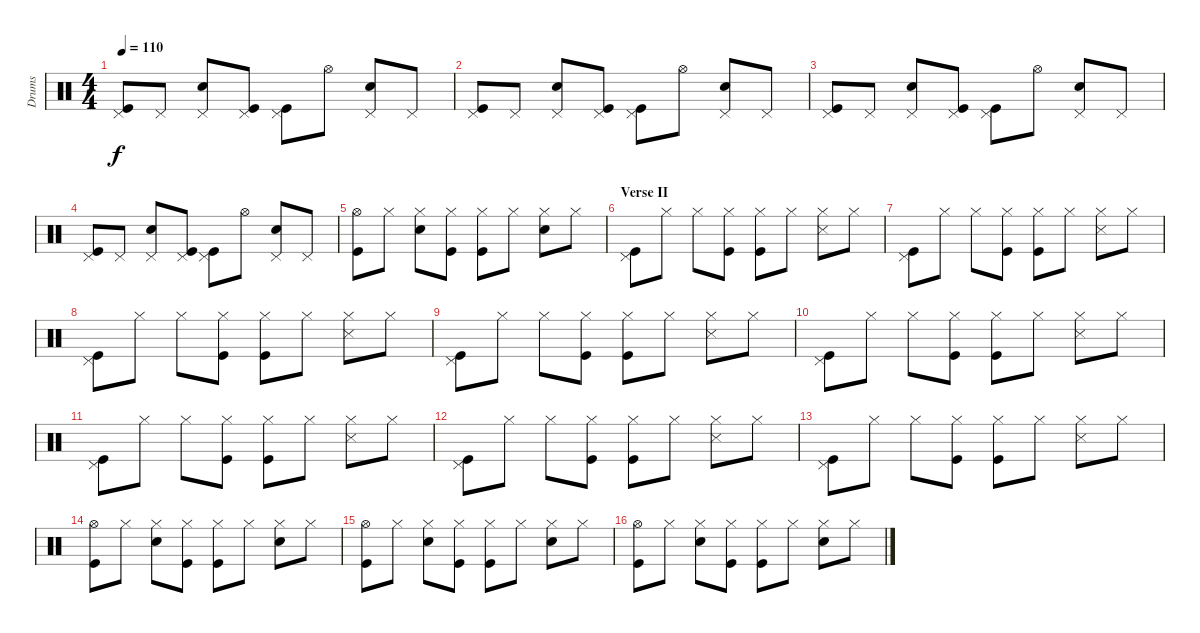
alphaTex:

\track ("Drums" "Drums") {instrument percussion}
\staff {score}
\articulation defaults
\ts (4 4)
\tempo 110
\clef neutral
\ks c
("Pedal Hi-Hat (hit)" "Kick (hit)").8{dy f} "Pedal Hi-Hat (hit)".8 ("Pedal Hi-Hat (hit)" "Snare (hit) 2").8 ("Pedal Hi-Hat (hit)" "Kick (hit)").8 ("Pedal Hi-Hat (hit)" "Kick (hit)").8 "Hi-Hat (open)".8 ("Pedal Hi-Hat (hit)" "Snare (hit) 2").8 "Pedal Hi-Hat (hit)".8 |
("Pedal Hi-Hat (hit)" "Kick (hit)").8 "Pedal Hi-Hat (hit)".8 ("Pedal Hi-Hat (hit)" "Snare (hit) 2").8 ("Pedal Hi-Hat (hit)" "Kick (hit)").8 ("Pedal Hi-Hat (hit)" "Kick (hit)").8 "Hi-Hat (open)".8 ("Pedal Hi-Hat (hit)" "Snare (hit) 2").8 "Pedal Hi-Hat (hit)".8 |
("Pedal Hi-Hat (hit)" "Kick (hit)").8 "Pedal Hi-Hat (hit)".8 ("Pedal Hi-Hat (hit)" "Snare (hit) 2").8 ("Pedal Hi-Hat (hit)" "Kick (hit)").8 ("Pedal Hi-Hat (hit)" "Kick (hit)").8 "Hi-Hat (open)".8 ("Pedal Hi-Hat (hit)" "Snare (hit) 2").8 "Pedal Hi-Hat (hit)".8 |
("Pedal Hi-Hat (hit)" "Kick (hit)").8 "Pedal Hi-Hat (hit)".8 ("Pedal Hi-Hat (hit)" "Snare (hit) 2").8 ("Pedal Hi-Hat (hit)" "Kick (hit)").8 ("Pedal Hi-Hat (hit)" "Kick (hit)").8 "Hi-Hat (open)".8 ("Pedal Hi-Hat (hit)" "Snare (hit) 2").8 "Pedal Hi-Hat (hit)".8 |
("Hi-Hat (open)" "Kick (hit)").8 "Hi-Hat (closed)".8 ("Hi-Hat (closed)" "Snare (hit) 2").8 ("Hi-Hat (closed)" "Kick (hit)").8 ("Hi-Hat (closed)" "Kick (hit)").8 "Hi-Hat (closed)".8 ("Hi-Hat (closed)" "Snare (hit) 2").8 "Hi-Hat (closed)".8 |
\section ("" "Verse II")
("Pedal Hi-Hat (hit)" "Kick (hit)").8 "Hi-Hat (closed)".8 "Hi-Hat (closed)".8 ("Hi-Hat (closed)" "Kick (hit)").8 ("Hi-Hat (closed)" "Kick (hit)").8 "Hi-Hat (closed)".8 ("Hi-Hat (closed)" "Snare (side stick) 3").8 "Hi-Hat (closed)".8 |
("Pedal Hi-Hat (hit)" "Kick (hit)").8 "Hi-Hat (closed)".8 "Hi-Hat (closed)".8 ("Hi-Hat (closed)" "Kick (hit)").8 ("Hi-Hat (closed)" "Kick (hit)").8 "Hi-Hat (closed)".8 ("Hi-Hat (closed)" "Snare (side stick) 3").8 "Hi-Hat (closed)".8 |
("Pedal Hi-Hat (hit)" "Kick (hit)").8 "Hi-Hat (closed)".8 "Hi-Hat (closed)".8 ("Hi-Hat (closed)" "Kick (hit)").8 ("Hi-Hat (closed)" "Kick (hit)").8 "Hi-Hat (closed)".8 ("Hi-Hat (closed)" "Snare (side stick) 3").8 "Hi-Hat (closed)".8 |
("Pedal Hi-Hat (hit)" "Kick (hit)").8 "Hi-Hat (closed)".8 "Hi-Hat (closed)".8 ("Hi-Hat (closed)" "Kick (hit)").8 ("Hi-Hat (closed)" "Kick (hit)").8 "Hi-Hat (closed)".8 ("Hi-Hat (closed)" "Snare (side stick) 3").8 "Hi-Hat (closed)".8 |
("Pedal Hi-Hat (hit)" "Kick (hit)").8 "Hi-Hat (closed)".8 "Hi-Hat (closed)".8 ("Hi-Hat (closed)" "Kick (hit)").8 ("Hi-Hat (closed)" "Kick (hit)").8 "Hi-Hat (closed)".8 ("Hi-Hat (closed)" "Snare (side stick) 3").8 "Hi-Hat (closed)".8 |
("Pedal Hi-Hat (hit)" "Kick (hit)").8 "Hi-Hat (closed)".8 "Hi-Hat (closed)".8 ("Hi-Hat (closed)" "Kick (hit)").8 ("Hi-Hat (closed)" "Kick (hit)").8 "Hi-Hat (closed)".8 ("Hi-Hat (closed)" "Snare (side stick) 3").8 "Hi-Hat (closed)".8 |
("Pedal Hi-Hat (hit)" "Kick (hit)").8 "Hi-Hat (closed)".8 "Hi-Hat (closed)".8 ("Hi-Hat (closed)" "Kick (hit)").8 ("Hi-Hat (closed)" "Kick (hit)").8 "Hi-Hat (closed)".8 ("Hi-Hat (closed)" "Snare (side stick) 3").8 "Hi-Hat (closed)".8 |
("Pedal Hi-Hat (hit)" "Kick (hit)").8 "Hi-Hat (closed)".8 "Hi-Hat (closed)".8 ("Hi-Hat (closed)" "Kick (hit)").8 ("Hi-Hat (closed)" "Kick (hit)").8 "Hi-Hat (closed)".8 ("Hi-Hat (closed)" "Snare (side stick) 3").8 "Hi-Hat (closed)".8 |
("Hi-Hat (open)" "Kick (hit)").8 "Hi-Hat (closed)".8 ("Hi-Hat (closed)" "Snare (hit) 2").8 ("Hi-Hat (closed)" "Kick (hit)").8 ("Hi-Hat (closed)" "Kick (hit)").8 "Hi-Hat (closed)".8 ("Hi-Hat (closed)" "Snare (hit) 2").8 "Hi-Hat (closed)".8 |
("Hi-Hat (open)" "Kick (hit)").8 "Hi-Hat (closed)".8 ("Hi-Hat (closed)" "Snare (hit) 2").8 ("Hi-Hat (closed)" "Kick (hit)").8 ("Hi-Hat (closed)" "Kick (hit)").8 "Hi-Hat (closed)".8 ("Hi-Hat (closed)" "Snare (hit) 2").8 "Hi-Hat (closed)".8 |
("Hi-Hat (open)" "Kick (hit)").8 "Hi-Hat (closed)".8 ("Hi-Hat (closed)" "Snare (hit) 2").8 ("Hi-Hat (closed)" "Kick (hit)").8 ("Hi-Hat (closed)" "Kick (hit)").8 "Hi-Hat (closed)".8 ("Hi-Hat (closed)" "Snare (hit) 2").8 "Hi-Hat (closed)".8
